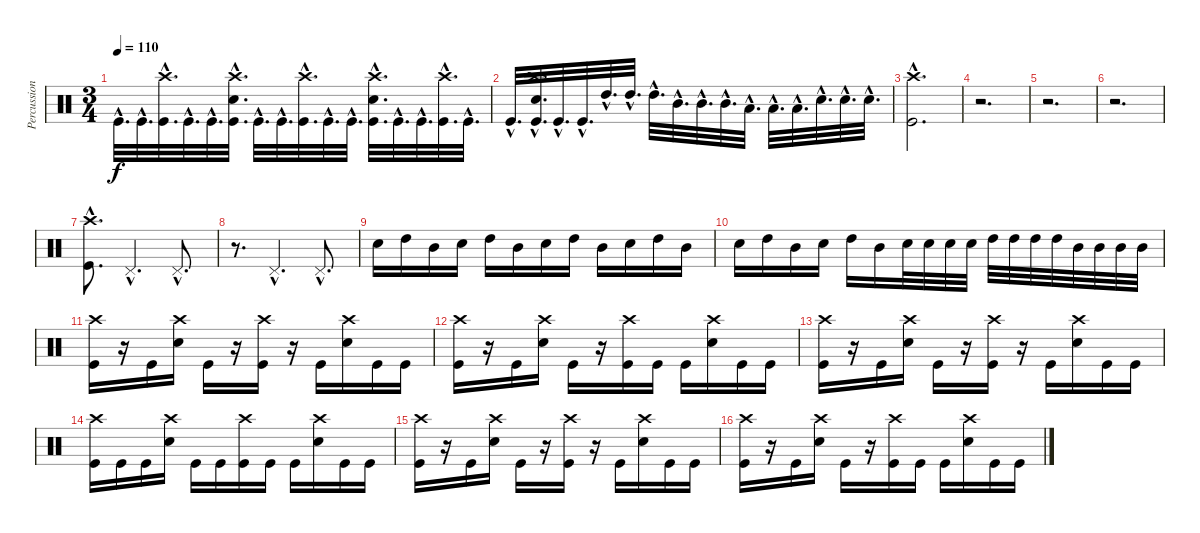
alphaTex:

\track ("Percussion" "Percussion") {instrument percussion}
\staff {score}
\articulation defaults
\ts (3 4)
\tempo 110
\clef neutral
\ks c "Kick (hit)"{hac}.32{d dy f} "Kick (hit)"{hac}.32{d}
("Crash high (hit)"{hac} "Kick (hit)"{hac}).32{d} "Kick (hit)"{hac}.32{d} "Kick (hit)"{hac}.32{d} ("Electric Snare (hit)"{hac} "Crash high (hit)"{hac} "Kick (hit)"{hac}).32{d} "Kick (hit)"{hac}.32{d} "Kick (hit)"{hac}.32{d} ("Crash high (hit)"{hac} "Kick (hit)"{hac}).32{d} "Kick (hit)"{hac}.32{d} "Kick (hit)"{hac}.32{d} ("Electric Snare (hit)"{hac} "Crash high (hit)"{hac} "Kick (hit)"{hac}).32{d} "Kick (hit)"{hac}.32{d} "Kick (hit)"{hac}.32{d} ("Crash high (hit)"{hac} "Kick (hit)"{hac}).32{d} "Kick (hit)"{hac}.32{d} |
"Kick (hit)"{hac}.32{d} ("Electric Snare (hit)"{hac} "Crash high (hit)"{hac} "Kick (hit)"{hac}).32{d} "Kick (hit)"{hac}.32{d} "Kick (hit)"{hac}.32{d} "High Tom (hit)"{hac}.32{d} "High Tom (hit)"{hac}.32{d} "High Tom (hit)"{hac}.32{d} "Mid Tom (hit)"{hac}.32{d} "Mid Tom (hit)"{hac}.32{d} "Mid Tom (hit)"{hac}.32{d} "Low Tom (hit)"{hac}.32{d} "Low Tom (hit)"{hac}.32{d} "Low Tom (hit)"{hac}.32{d} "Electric Snare (hit)"{hac}.32{d} "Electric Snare (hit)"{hac}.32{d} "Electric Snare (hit)"{hac}.32{d} |
("Crash high (hit)"{hac} "Kick (hit)"{hac}).2{d} |
r.2{d} |
r.2{d} |
r.2{d} |
("Crash high (hit)"{hac} "Kick (hit)"{hac}).8{d} "Pedal Hi-Hat (hit)"{hac}.4{d} "Pedal Hi-Hat (hit)"{hac}.8{d} |
r.8{d} "Pedal Hi-Hat (hit)"{hac}.4{d} "Pedal Hi-Hat (hit)"{hac}.8{d} |
"Electric Snare (hit)".16 "High Tom (hit)".16 "Mid Tom (hit)".16 "Electric Snare (hit)".16 "High Tom (hit)".16 "Mid Tom (hit)".16 "Electric Snare (hit)".16 "High Tom (hit)".16 "Mid Tom (hit)".16 "Electric Snare (hit)".16 "High Tom (hit)".16 "Mid Tom (hit)".16 |
"Electric Snare (hit)".16 "High Tom (hit)".16 "Mid Tom (hit)".16 "Electric Snare (hit)".16 "High Tom (hit)".16 "Mid Tom (hit)".16 "Electric Snare (hit)".32 "Electric Snare (hit)".32 "Electric Snare (hit)".32 "Electric Snare (hit)".32 "High Tom (hit)".32 "High Tom (hit)".32 "High Tom (hit)".32 "High Tom (hit)".32 "Mid Tom (hit)".32 "Mid Tom (hit)".32 "Mid Tom (hit)".32 "Mid Tom (hit)".32 |
("Crash high (hit)" "Kick (hit)").16 r.16 "Kick (hit)".16 ("Crash high (hit)" "Electric Snare (hit)").16 "Kick (hit)".16 r.16 ("Crash high (hit)" "Kick (hit)").16 r.16 "Kick (hit)".16 ("Crash high (hit)" "Electric Snare (hit)").16 "Kick (hit)".16 "Kick (hit)".16 |
("Crash high (hit)" "Kick (hit)").16 r.16 "Kick (hit)".16 ("Crash high (hit)" "Electric Snare (hit)").16 "Kick (hit)".16 r.16 ("Crash high (hit)" "Kick (hit)").16 "Kick (hit)".16 "Kick (hit)".16 ("Crash high (hit)" "Electric Snare (hit)").16 "Kick (hit)".16 "Kick (hit)".16 |
("Crash high (hit)" "Kick (hit)").16 r.16 "Kick (hit)".16 ("Crash high (hit)" "Electric Snare (hit)").16 "Kick (hit)".16 r.16 ("Crash high (hit)" "Kick (hit)").16 r.16 "Kick (hit)".16 ("Crash high (hit)" "Electric Snare (hit)").16 "Kick (hit)".16 "Kick (hit)".16 |
("Crash high (hit)" "Kick (hit)").16 "Kick (hit)".16 "Kick (hit)".16 ("Crash high (hit)" "Electric Snare (hit)").16 "Kick (hit)".16 "Kick (hit)".16 ("Crash high (hit)" "Kick (hit)").16 "Kick (hit)".16 "Kick (hit)".16 ("Crash high (hit)" "Electric Snare (hit)").16 "Kick (hit)".16 "Kick (hit)".16 |
("Crash high (hit)" "Kick (hit)").16 r.16 "Kick (hit)".16 ("Crash high (hit)" "Electric Snare (hit)").16 "Kick (hit)".16 r.16 ("Crash high (hit)" "Kick (hit)").16 r.16 "Kick (hit)".16 ("Crash high (hit)" "Electric Snare (hit)").16 "Kick (hit)".16 "Kick (hit)".16 |
("Crash high (hit)" "Kick (hit)").16 r.16 "Kick (hit)".16 ("Crash high (hit)" "Electric Snare (hit)").16 "Kick (hit)".16 r.16 ("Crash high (hit)" "Kick (hit)").16 "Kick (hit)".16 "Kick (hit)".16 ("Crash high (hit)" "Electric Snare (hit)").16 "Kick (hit)".16 "Kick (hit)".16
